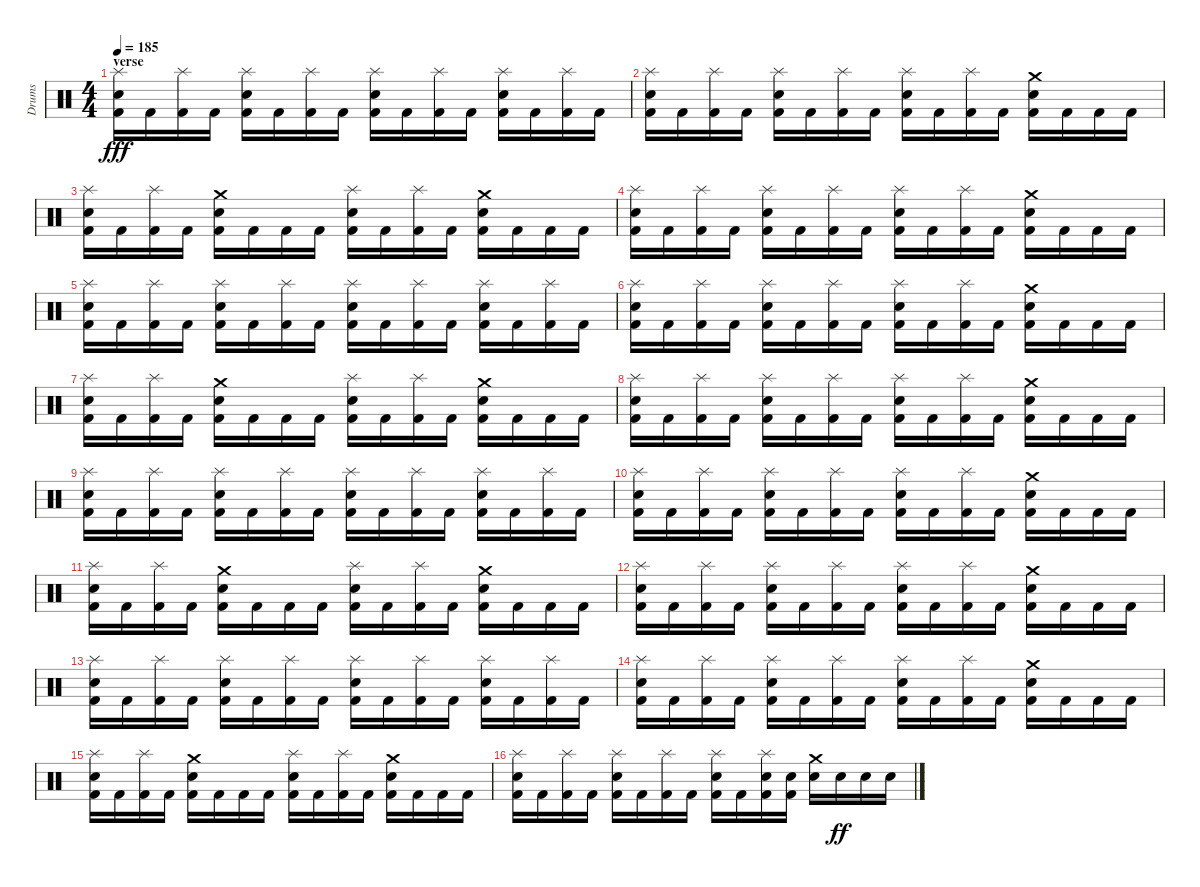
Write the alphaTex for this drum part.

\track ("Drums" "Drums") {instrument percussion}
\staff {score}
\articulation defaults
\ts (4 4)
\section ("" "verse")
\tempo 185
\clef neutral
\ks c
("Splash (hit)" "Electric Snare (hit)" "Kick (hit) 2").16{dy fff} "Kick (hit) 2".16 ("Splash (hit)" "Kick (hit) 2").16 "Kick (hit) 2".16 ("Splash (hit)" "Electric Snare (hit)" "Kick (hit) 2").16 "Kick (hit) 2".16 ("Splash (hit)" "Kick (hit) 2").16 "Kick (hit) 2".16 ("Splash (hit)" "Electric Snare (hit)" "Kick (hit) 2").16 "Kick (hit) 2".16 ("Splash (hit)" "Kick (hit) 2").16 "Kick (hit) 2".16 ("Splash (hit)" "Electric Snare (hit)" "Kick (hit) 2").16 "Kick (hit) 2".16 ("Splash (hit)" "Kick (hit) 2").16 "Kick (hit) 2".16 |
("Splash (hit)" "Electric Snare (hit)" "Kick (hit) 2").16 "Kick (hit) 2".16 ("Splash (hit)" "Kick (hit) 2").16 "Kick (hit) 2".16 ("Splash (hit)" "Electric Snare (hit)" "Kick (hit) 2").16 "Kick (hit) 2".16 ("Splash (hit)" "Kick (hit) 2").16 "Kick (hit) 2".16 ("Splash (hit)" "Electric Snare (hit)" "Kick (hit) 2").16 "Kick (hit) 2".16 ("Splash (hit)" "Kick (hit) 2").16 "Kick (hit) 2".16 ("Crash medium (hit)" "Electric Snare (hit)" "Kick (hit) 2").16 "Kick (hit) 2".16 "Kick (hit) 2".16 "Kick (hit) 2".16 |
("Splash (hit)" "Electric Snare (hit)" "Kick (hit) 2").16 "Kick (hit) 2".16 ("Splash (hit)" "Kick (hit) 2").16 "Kick (hit) 2".16 ("Crash medium (hit)" "Electric Snare (hit)" "Kick (hit) 2").16 "Kick (hit) 2".16 "Kick (hit) 2".16 "Kick (hit) 2".16 ("Splash (hit)" "Electric Snare (hit)" "Kick (hit) 2").16 "Kick (hit) 2".16 ("Splash (hit)" "Kick (hit) 2").16 "Kick (hit) 2".16 ("Crash medium (hit)" "Electric Snare (hit)" "Kick (hit) 2").16 "Kick (hit) 2".16 "Kick (hit) 2".16 "Kick (hit) 2".16 |
("Splash (hit)" "Electric Snare (hit)" "Kick (hit) 2").16 "Kick (hit) 2".16 ("Splash (hit)" "Kick (hit) 2").16 "Kick (hit) 2".16 ("Splash (hit)" "Electric Snare (hit)" "Kick (hit) 2").16 "Kick (hit) 2".16 ("Splash (hit)" "Kick (hit) 2").16 "Kick (hit) 2".16 ("Splash (hit)" "Electric Snare (hit)" "Kick (hit) 2").16 "Kick (hit) 2".16 ("Splash (hit)" "Kick (hit) 2").16 "Kick (hit) 2".16 ("Crash medium (hit)" "Electric Snare (hit)" "Kick (hit) 2").16 "Kick (hit) 2".16 "Kick (hit) 2".16 "Kick (hit) 2".16 |
("Splash (hit)" "Electric Snare (hit)" "Kick (hit) 2").16 "Kick (hit) 2".16 ("Splash (hit)" "Kick (hit) 2").16 "Kick (hit) 2".16 ("Splash (hit)" "Electric Snare (hit)" "Kick (hit) 2").16 "Kick (hit) 2".16 ("Splash (hit)" "Kick (hit) 2").16 "Kick (hit) 2".16 ("Splash (hit)" "Electric Snare (hit)" "Kick (hit) 2").16 "Kick (hit) 2".16 ("Splash (hit)" "Kick (hit) 2").16 "Kick (hit) 2".16 ("Splash (hit)" "Electric Snare (hit)" "Kick (hit) 2").16 "Kick (hit) 2".16 ("Splash (hit)" "Kick (hit) 2").16 "Kick (hit) 2".16 |
("Splash (hit)" "Electric Snare (hit)" "Kick (hit) 2").16 "Kick (hit) 2".16 ("Splash (hit)" "Kick (hit) 2").16 "Kick (hit) 2".16 ("Splash (hit)" "Electric Snare (hit)" "Kick (hit) 2").16 "Kick (hit) 2".16 ("Splash (hit)" "Kick (hit) 2").16 "Kick (hit) 2".16 ("Splash (hit)" "Electric Snare (hit)" "Kick (hit) 2").16 "Kick (hit) 2".16 ("Splash (hit)" "Kick (hit) 2").16 "Kick (hit) 2".16 ("Crash medium (hit)" "Electric Snare (hit)" "Kick (hit) 2").16 "Kick (hit) 2".16 "Kick (hit) 2".16 "Kick (hit) 2".16 |
("Splash (hit)" "Electric Snare (hit)" "Kick (hit) 2").16 "Kick (hit) 2".16 ("Splash (hit)" "Kick (hit) 2").16 "Kick (hit) 2".16 ("Crash medium (hit)" "Electric Snare (hit)" "Kick (hit) 2").16 "Kick (hit) 2".16 "Kick (hit) 2".16 "Kick (hit) 2".16 ("Splash (hit)" "Electric Snare (hit)" "Kick (hit) 2").16 "Kick (hit) 2".16 ("Splash (hit)" "Kick (hit) 2").16 "Kick (hit) 2".16 ("Crash medium (hit)" "Electric Snare (hit)" "Kick (hit) 2").16 "Kick (hit) 2".16 "Kick (hit) 2".16 "Kick (hit) 2".16 |
("Splash (hit)" "Electric Snare (hit)" "Kick (hit) 2").16 "Kick (hit) 2".16 ("Splash (hit)" "Kick (hit) 2").16 "Kick (hit) 2".16 ("Splash (hit)" "Electric Snare (hit)" "Kick (hit) 2").16 "Kick (hit) 2".16 ("Splash (hit)" "Kick (hit) 2").16 "Kick (hit) 2".16 ("Splash (hit)" "Electric Snare (hit)" "Kick (hit) 2").16 "Kick (hit) 2".16 ("Splash (hit)" "Kick (hit) 2").16 "Kick (hit) 2".16 ("Crash medium (hit)" "Electric Snare (hit)" "Kick (hit) 2").16 "Kick (hit) 2".16 "Kick (hit) 2".16 "Kick (hit) 2".16 |
("Splash (hit)" "Electric Snare (hit)" "Kick (hit) 2").16 "Kick (hit) 2".16 ("Splash (hit)" "Kick (hit) 2").16 "Kick (hit) 2".16 ("Splash (hit)" "Electric Snare (hit)" "Kick (hit) 2").16 "Kick (hit) 2".16 ("Splash (hit)" "Kick (hit) 2").16 "Kick (hit) 2".16 ("Splash (hit)" "Electric Snare (hit)" "Kick (hit) 2").16 "Kick (hit) 2".16 ("Splash (hit)" "Kick (hit) 2").16 "Kick (hit) 2".16 ("Splash (hit)" "Electric Snare (hit)" "Kick (hit) 2").16 "Kick (hit) 2".16 ("Splash (hit)" "Kick (hit) 2").16 "Kick (hit) 2".16 |
("Splash (hit)" "Electric Snare (hit)" "Kick (hit) 2").16 "Kick (hit) 2".16 ("Splash (hit)" "Kick (hit) 2").16 "Kick (hit) 2".16 ("Splash (hit)" "Electric Snare (hit)" "Kick (hit) 2").16 "Kick (hit) 2".16 ("Splash (hit)" "Kick (hit) 2").16 "Kick (hit) 2".16 ("Splash (hit)" "Electric Snare (hit)" "Kick (hit) 2").16 "Kick (hit) 2".16 ("Splash (hit)" "Kick (hit) 2").16 "Kick (hit) 2".16 ("Crash medium (hit)" "Electric Snare (hit)" "Kick (hit) 2").16 "Kick (hit) 2".16 "Kick (hit) 2".16 "Kick (hit) 2".16 |
("Splash (hit)" "Electric Snare (hit)" "Kick (hit) 2").16 "Kick (hit) 2".16 ("Splash (hit)" "Kick (hit) 2").16 "Kick (hit) 2".16 ("Crash medium (hit)" "Electric Snare (hit)" "Kick (hit) 2").16 "Kick (hit) 2".16 "Kick (hit) 2".16 "Kick (hit) 2".16 ("Splash (hit)" "Electric Snare (hit)" "Kick (hit) 2").16 "Kick (hit) 2".16 ("Splash (hit)" "Kick (hit) 2").16 "Kick (hit) 2".16 ("Crash medium (hit)" "Electric Snare (hit)" "Kick (hit) 2").16 "Kick (hit) 2".16 "Kick (hit) 2".16 "Kick (hit) 2".16 |
("Splash (hit)" "Electric Snare (hit)" "Kick (hit) 2").16 "Kick (hit) 2".16 ("Splash (hit)" "Kick (hit) 2").16 "Kick (hit) 2".16 ("Splash (hit)" "Electric Snare (hit)" "Kick (hit) 2").16 "Kick (hit) 2".16 ("Splash (hit)" "Kick (hit) 2").16 "Kick (hit) 2".16 ("Splash (hit)" "Electric Snare (hit)" "Kick (hit) 2").16 "Kick (hit) 2".16 ("Splash (hit)" "Kick (hit) 2").16 "Kick (hit) 2".16 ("Crash medium (hit)" "Electric Snare (hit)" "Kick (hit) 2").16 "Kick (hit) 2".16 "Kick (hit) 2".16 "Kick (hit) 2".16 |
("Splash (hit)" "Electric Snare (hit)" "Kick (hit) 2").16 "Kick (hit) 2".16 ("Splash (hit)" "Kick (hit) 2").16 "Kick (hit) 2".16 ("Splash (hit)" "Electric Snare (hit)" "Kick (hit) 2").16 "Kick (hit) 2".16 ("Splash (hit)" "Kick (hit) 2").16 "Kick (hit) 2".16 ("Splash (hit)" "Electric Snare (hit)" "Kick (hit) 2").16 "Kick (hit) 2".16 ("Splash (hit)" "Kick (hit) 2").16 "Kick (hit) 2".16 ("Splash (hit)" "Electric Snare (hit)" "Kick (hit) 2").16 "Kick (hit) 2".16 ("Splash (hit)" "Kick (hit) 2").16 "Kick (hit) 2".16 |
("Splash (hit)" "Electric Snare (hit)" "Kick (hit) 2").16 "Kick (hit) 2".16 ("Splash (hit)" "Kick (hit) 2").16 "Kick (hit) 2".16 ("Splash (hit)" "Electric Snare (hit)" "Kick (hit) 2").16 "Kick (hit) 2".16 ("Splash (hit)" "Kick (hit) 2").16 "Kick (hit) 2".16 ("Splash (hit)" "Electric Snare (hit)" "Kick (hit) 2").16 "Kick (hit) 2".16 ("Splash (hit)" "Kick (hit) 2").16 "Kick (hit) 2".16 ("Crash medium (hit)" "Electric Snare (hit)" "Kick (hit) 2").16 "Kick (hit) 2".16 "Kick (hit) 2".16 "Kick (hit) 2".16 |
("Splash (hit)" "Electric Snare (hit)" "Kick (hit) 2").16 "Kick (hit) 2".16 ("Splash (hit)" "Kick (hit) 2").16 "Kick (hit) 2".16 ("Crash medium (hit)" "Electric Snare (hit)" "Kick (hit) 2").16 "Kick (hit) 2".16 "Kick (hit) 2".16 "Kick (hit) 2".16 ("Splash (hit)" "Electric Snare (hit)" "Kick (hit) 2").16 "Kick (hit) 2".16 ("Splash (hit)" "Kick (hit) 2").16 "Kick (hit) 2".16 ("Crash medium (hit)" "Electric Snare (hit)" "Kick (hit) 2").16 "Kick (hit) 2".16 "Kick (hit) 2".16 "Kick (hit) 2".16 |
("Splash (hit)" "Electric Snare (hit)" "Kick (hit) 2").16 "Kick (hit) 2".16 ("Splash (hit)" "Kick (hit) 2").16 "Kick (hit) 2".16 ("Splash (hit)" "Electric Snare (hit)" "Kick (hit) 2").16 "Kick (hit) 2".16 ("Splash (hit)" "Kick (hit) 2").16 "Kick (hit) 2".16 ("Splash (hit)" "Electric Snare (hit)" "Kick (hit) 2").16 "Kick (hit) 2".16 ("Splash (hit)" "Electric Snare (hit)" "Kick (hit) 2").16 ("Electric Snare (hit)" "Kick (hit) 2").16 ("Crash medium (hit)" "Electric Snare (hit)").16 "Electric Snare (hit)".16{dy ff} "Electric Snare (hit)".16 "Electric Snare (hit)".16
